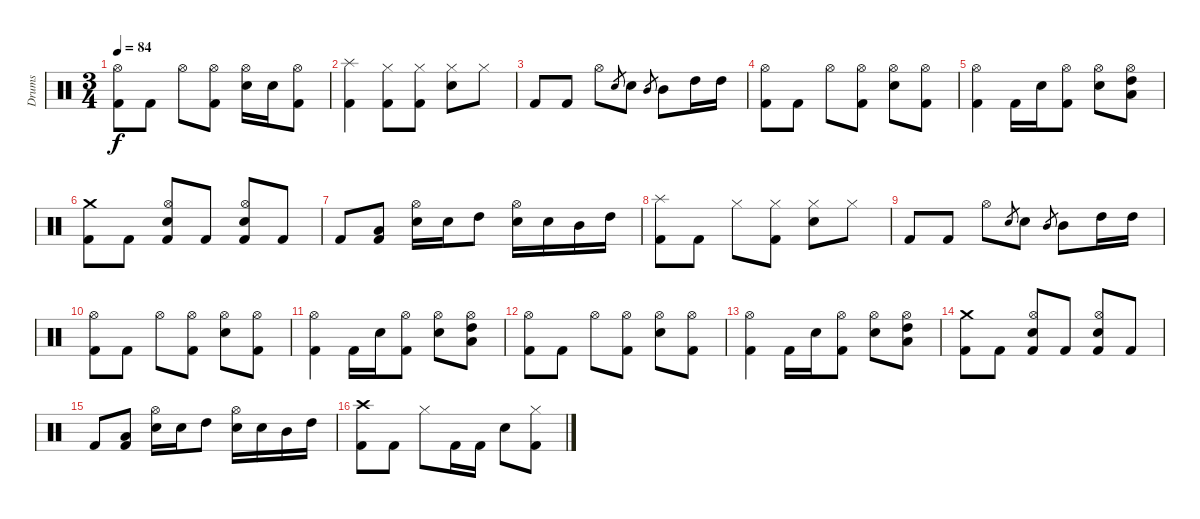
\track ("Drums" "Drums") {instrument percussion}
\staff {score}
\articulation defaults
\ts (3 4)
\tempo 84
\clef neutral
\ks c
("Kick (hit) 2" "Hi-Hat (open)").8{dy f} "Kick (hit) 2".8 "Hi-Hat (open)".8 ("Kick (hit) 2" "Hi-Hat (open)").8 ("Snare (hit) 2" "Hi-Hat (open)").16 "Snare (hit) 2".16 ("Kick (hit) 2" "Hi-Hat (open)").8 |
("Kick (hit) 2" "Splash (hit)").4 ("Kick (hit) 2" "Hi-Hat (closed)").8 ("Kick (hit) 2" "Hi-Hat (closed)").8 ("Snare (hit) 2" "Hi-Hat (closed)").8 "Hi-Hat (closed)".8 |
"Kick (hit) 2".8 "Kick (hit) 2".8 "Hi-Hat (open)".8 "Snare (hit) 2".8{gr} "Snare (hit) 2".8 "Mid Tom (hit)".8{gr} "Mid Tom (hit)".8 "High Tom (hit)".16 "High Tom (hit)".16 |
("Kick (hit) 2" "Hi-Hat (open)").8 "Kick (hit) 2".8 "Hi-Hat (open)".8 ("Kick (hit) 2" "Hi-Hat (open)").8 ("Snare (hit) 2" "Hi-Hat (open)").8 ("Kick (hit) 2" "Hi-Hat (open)").8 |
("Kick (hit) 2" "Hi-Hat (open)").4 "Kick (hit) 2".16 "Snare (hit) 2".16 ("Kick (hit) 2" "Hi-Hat (open)").8 ("Snare (hit) 2" "Hi-Hat (open)").8 ("Hi-Hat (open)" "Low Tom (hit)" "High Tom (hit)").8 |
("Kick (hit) 2" "Crash medium (hit)").8 "Kick (hit) 2".8 ("Kick (hit) 2" "Snare (hit) 2" "Hi-Hat (open)").8 "Kick (hit) 2".8 ("Kick (hit) 2" "Snare (hit) 2" "Hi-Hat (open)").8 "Kick (hit) 2".8 |
"Kick (hit) 2".8 ("Kick (hit) 2" "Low Tom (hit)").8 ("Snare (hit) 2" "Hi-Hat (open)").16 "Snare (hit) 2".16 "High Tom (hit)".8 ("Snare (hit) 2" "Hi-Hat (open)").16 "Snare (hit) 2".16 "Mid Tom (hit)".16 "High Tom (hit)".16 |
("Kick (hit) 2" "Splash (hit)").8 "Kick (hit) 2".8 "Hi-Hat (closed)".8 ("Kick (hit) 2" "Hi-Hat (closed)").8 ("Snare (hit) 2" "Hi-Hat (closed)").8 "Hi-Hat (closed)".8 |
"Kick (hit) 2".8 "Kick (hit) 2".8 "Hi-Hat (open)".8 "Snare (hit) 2".8{gr} "Snare (hit) 2".8 "Mid Tom (hit)".8{gr} "Mid Tom (hit)".8 "High Tom (hit)".16 "High Tom (hit)".16 |
("Kick (hit) 2" "Hi-Hat (open)").8 "Kick (hit) 2".8 "Hi-Hat (open)".8 ("Kick (hit) 2" "Hi-Hat (open)").8 ("Snare (hit) 2" "Hi-Hat (open)").8 ("Kick (hit) 2" "Hi-Hat (open)").8 |
("Kick (hit) 2" "Hi-Hat (open)").4 "Kick (hit) 2".16 "Snare (hit) 2".16 ("Kick (hit) 2" "Hi-Hat (open)").8 ("Snare (hit) 2" "Hi-Hat (open)").8 ("Hi-Hat (open)" "Low Tom (hit)" "High Tom (hit)").8 |
("Kick (hit) 2" "Hi-Hat (open)").8 "Kick (hit) 2".8 "Hi-Hat (open)".8 ("Kick (hit) 2" "Hi-Hat (open)").8 ("Snare (hit) 2" "Hi-Hat (open)").8 ("Kick (hit) 2" "Hi-Hat (open)").8 |
("Kick (hit) 2" "Hi-Hat (open)").4 "Kick (hit) 2".16 "Snare (hit) 2".16 ("Kick (hit) 2" "Hi-Hat (open)").8 ("Snare (hit) 2" "Hi-Hat (open)").8 ("Hi-Hat (open)" "Low Tom (hit)" "High Tom (hit)").8 |
("Kick (hit) 2" "Crash medium (hit)").8 "Kick (hit) 2".8 ("Kick (hit) 2" "Snare (hit) 2" "Hi-Hat (open)").8 "Kick (hit) 2".8 ("Kick (hit) 2" "Snare (hit) 2" "Hi-Hat (open)").8 "Kick (hit) 2".8 |
"Kick (hit) 2".8 ("Kick (hit) 2" "Low Tom (hit)").8 ("Snare (hit) 2" "Hi-Hat (open)").16 "Snare (hit) 2".16 "High Tom (hit)".8 ("Snare (hit) 2" "Hi-Hat (open)").16 "Snare (hit) 2".16 "Mid Tom (hit)".16 "High Tom (hit)".16 |
("Kick (hit) 2" "Crash high (hit)").8 "Kick (hit) 2".8 "Hi-Hat (closed)".8 "Kick (hit) 2".16 "Kick (hit) 2".16 "Snare (hit) 2".8 ("Kick (hit) 2" "Hi-Hat (closed)").8
